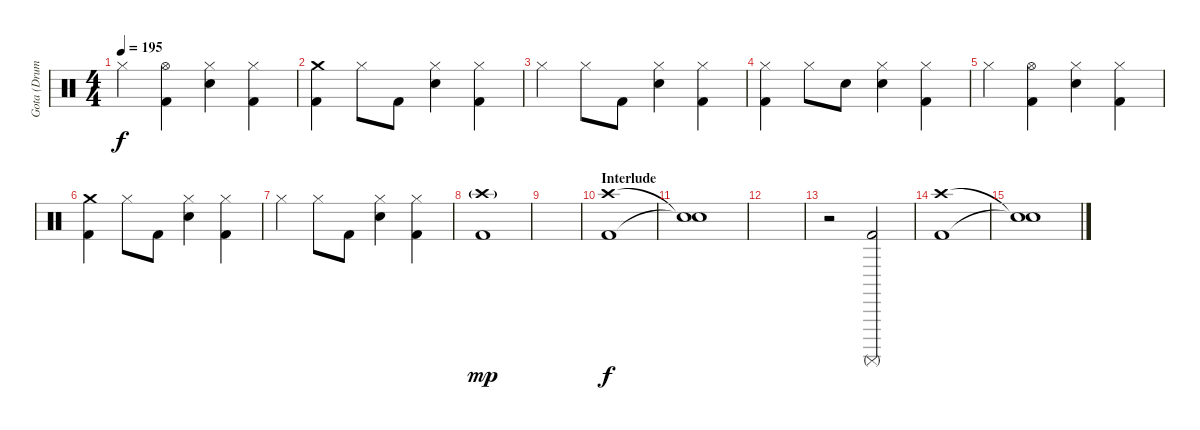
\track ("Gota (Drums)" "Gota (Drum") {instrument percussion}
\staff {score}
\articulation defaults
\ts (4 4)
\tempo 195
\clef neutral
\ks c "Hi-Hat (closed)".4{dy f}
("Hi-Hat (open)" "Kick (hit) 2").4 ("Hi-Hat (closed)" "Electric Snare (hit)").4 ("Hi-Hat (closed)" "Kick (hit) 2").4 |
("Crash medium (hit)" "Kick (hit) 2").4 "Hi-Hat (closed)".8 "Kick (hit) 2".8 ("Hi-Hat (closed)" "Electric Snare (hit)").4 ("Hi-Hat (closed)" "Kick (hit) 2").4 |
"Hi-Hat (closed)".4 "Hi-Hat (closed)".8 "Kick (hit) 2".8 ("Hi-Hat (closed)" "Electric Snare (hit)").4 ("Hi-Hat (closed)" "Kick (hit) 2").4 |
("Hi-Hat (closed)" "Kick (hit) 2").4 "Hi-Hat (closed)".8 "Electric Snare (hit)".8 ("Hi-Hat (closed)" "Electric Snare (hit)").4 ("Hi-Hat (closed)" "Kick (hit) 2").4 |
"Hi-Hat (closed)".4 ("Hi-Hat (open)" "Kick (hit) 2").4 ("Hi-Hat (closed)" "Electric Snare (hit)").4 ("Hi-Hat (closed)" "Kick (hit) 2").4 |
("Crash medium (hit)" "Kick (hit) 2").4 "Hi-Hat (closed)".8 "Kick (hit) 2".8 ("Hi-Hat (closed)" "Electric Snare (hit)").4 ("Hi-Hat (closed)" "Kick (hit) 2").4 |
"Hi-Hat (closed)".4 "Hi-Hat (closed)".8 "Kick (hit) 2".8 ("Hi-Hat (closed)" "Electric Snare (hit)").4 ("Hi-Hat (closed)" "Kick (hit) 2").4 |
("Crash high (hit)"{g} "Kick (hit) 2").1{dy mp} |
|
\section ("" "Interlude")
("Crash high (hit)" "Kick (hit) 2").1{dy f} |
("Snare (hit)"{t} "Snare (hit)"{t}).1 |
|
r.2 ("Surdo (mute)" "Kick (hit) 2").2 |
("Crash high (hit)" "Kick (hit) 2").1 |
("Snare (hit)"{t} "Snare (hit)"{t}).1
